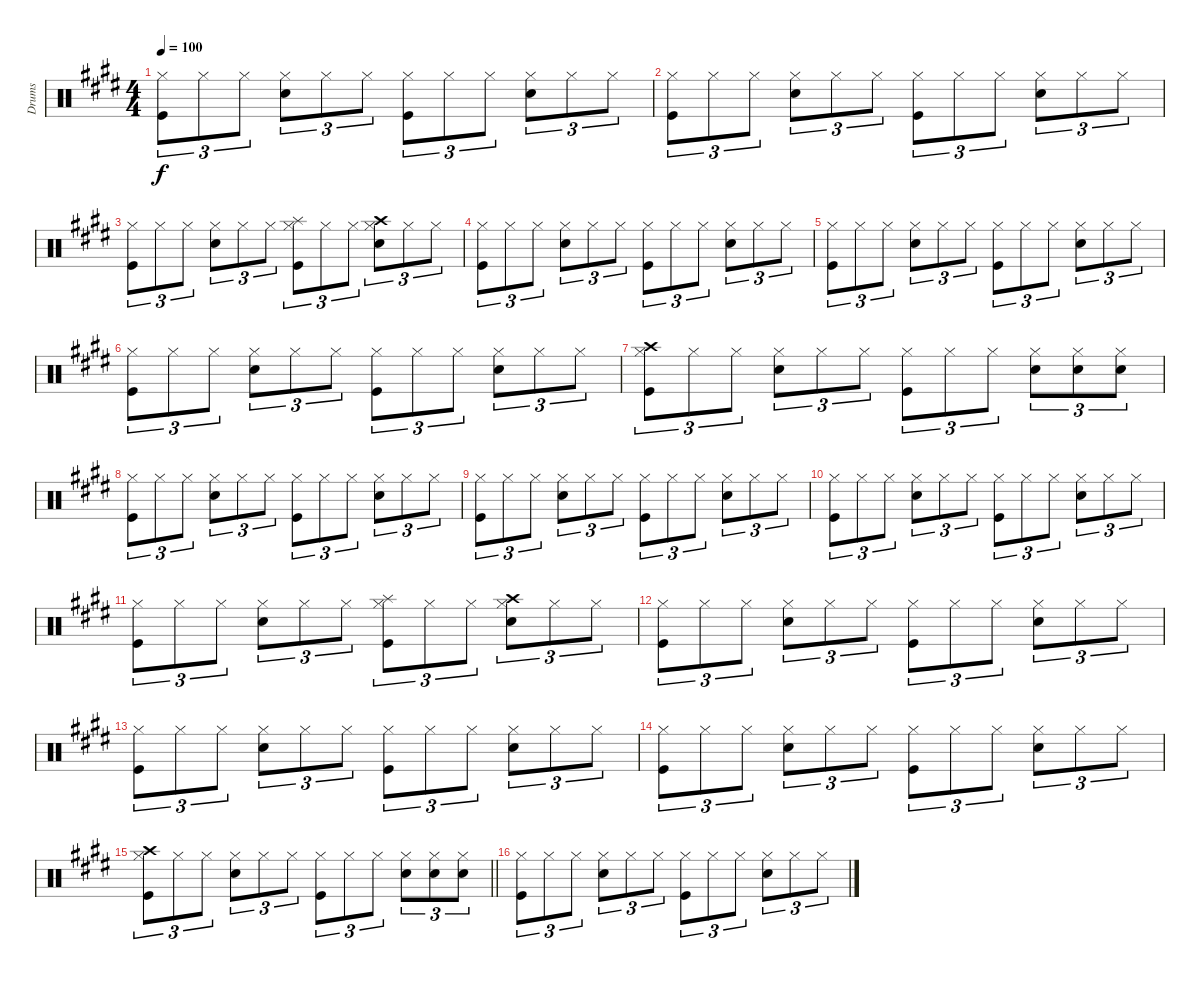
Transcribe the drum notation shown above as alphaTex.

\track ("Drums" "Drums") {instrument percussion}
\staff {score}
\articulation defaults
\ts (4 4)
\tempo 100
\clef neutral
\ks e
("Hi-Hat (closed)" "Kick (hit)").8{tu (3 2) dy f} "Hi-Hat (closed)".8{tu (3 2)} "Hi-Hat (closed)".8{tu (3 2)} ("Hi-Hat (closed)" "Snare (hit) 2").8{tu (3 2)} "Hi-Hat (closed)".8{tu (3 2)} "Hi-Hat (closed)".8{tu (3 2)} ("Hi-Hat (closed)" "Kick (hit)").8{tu (3 2)} "Hi-Hat (closed)".8{tu (3 2)} "Hi-Hat (closed)".8{tu (3 2)} ("Hi-Hat (closed)" "Snare (hit) 2").8{tu (3 2)} "Hi-Hat (closed)".8{tu (3 2)} "Hi-Hat (closed)".8{tu (3 2)} |
\ks c#minor
("Hi-Hat (closed)" "Kick (hit)").8{tu (3 2)} "Hi-Hat (closed)".8{tu (3 2)} "Hi-Hat (closed)".8{tu (3 2)} ("Hi-Hat (closed)" "Snare (hit) 2").8{tu (3 2)} "Hi-Hat (closed)".8{tu (3 2)} "Hi-Hat (closed)".8{tu (3 2)} ("Hi-Hat (closed)" "Kick (hit)").8{tu (3 2)} "Hi-Hat (closed)".8{tu (3 2)} "Hi-Hat (closed)".8{tu (3 2)} ("Hi-Hat (closed)" "Snare (hit) 2").8{tu (3 2)} "Hi-Hat (closed)".8{tu (3 2)} "Hi-Hat (closed)".8{tu (3 2)} |
\ks e
("Hi-Hat (closed)" "Kick (hit)").8{tu (3 2)} "Hi-Hat (closed)".8{tu (3 2)} "Hi-Hat (closed)".8{tu (3 2)} ("Hi-Hat (closed)" "Snare (hit) 2").8{tu (3 2)} "Hi-Hat (closed)".8{tu (3 2)} "Hi-Hat (closed)".8{tu (3 2)} ("Hi-Hat (closed)" "Splash (hit)" "Kick (hit)").8{tu (3 2)} "Hi-Hat (closed)".8{tu (3 2)} "Hi-Hat (closed)".8{tu (3 2)} ("Hi-Hat (closed)" "Crash high (hit)" "Snare (hit) 2").8{tu (3 2)} "Hi-Hat (closed)".8{tu (3 2)} "Hi-Hat (closed)".8{tu (3 2)} |
("Hi-Hat (closed)" "Kick (hit)").8{tu (3 2)} "Hi-Hat (closed)".8{tu (3 2)} "Hi-Hat (closed)".8{tu (3 2)} ("Hi-Hat (closed)" "Snare (hit) 2").8{tu (3 2)} "Hi-Hat (closed)".8{tu (3 2)} "Hi-Hat (closed)".8{tu (3 2)} ("Hi-Hat (closed)" "Kick (hit)").8{tu (3 2)} "Hi-Hat (closed)".8{tu (3 2)} "Hi-Hat (closed)".8{tu (3 2)} ("Hi-Hat (closed)" "Snare (hit) 2").8{tu (3 2)} "Hi-Hat (closed)".8{tu (3 2)} "Hi-Hat (closed)".8{tu (3 2)} |
\ks c#minor
("Hi-Hat (closed)" "Kick (hit)").8{tu (3 2)} "Hi-Hat (closed)".8{tu (3 2)} "Hi-Hat (closed)".8{tu (3 2)} ("Hi-Hat (closed)" "Snare (hit) 2").8{tu (3 2)} "Hi-Hat (closed)".8{tu (3 2)} "Hi-Hat (closed)".8{tu (3 2)} ("Hi-Hat (closed)" "Kick (hit)").8{tu (3 2)} "Hi-Hat (closed)".8{tu (3 2)} "Hi-Hat (closed)".8{tu (3 2)} ("Hi-Hat (closed)" "Snare (hit) 2").8{tu (3 2)} "Hi-Hat (closed)".8{tu (3 2)} "Hi-Hat (closed)".8{tu (3 2)} |
\ks e
("Hi-Hat (closed)" "Kick (hit)").8{tu (3 2)} "Hi-Hat (closed)".8{tu (3 2)} "Hi-Hat (closed)".8{tu (3 2)} ("Hi-Hat (closed)" "Snare (hit) 2").8{tu (3 2)} "Hi-Hat (closed)".8{tu (3 2)} "Hi-Hat (closed)".8{tu (3 2)} ("Hi-Hat (closed)" "Kick (hit)").8{tu (3 2)} "Hi-Hat (closed)".8{tu (3 2)} "Hi-Hat (closed)".8{tu (3 2)} ("Hi-Hat (closed)" "Snare (hit) 2").8{tu (3 2)} "Hi-Hat (closed)".8{tu (3 2)} "Hi-Hat (closed)".8{tu (3 2)} |
("Hi-Hat (closed)" "Crash high (hit)" "Kick (hit)").8{tu (3 2)} "Hi-Hat (closed)".8{tu (3 2)} "Hi-Hat (closed)".8{tu (3 2)} ("Hi-Hat (closed)" "Snare (hit) 2").8{tu (3 2)} "Hi-Hat (closed)".8{tu (3 2)} "Hi-Hat (closed)".8{tu (3 2)} ("Hi-Hat (closed)" "Kick (hit)").8{tu (3 2)} "Hi-Hat (closed)".8{tu (3 2)} "Hi-Hat (closed)".8{tu (3 2)} ("Hi-Hat (closed)" "Snare (hit) 2").8{tu (3 2)} ("Hi-Hat (closed)" "Snare (hit) 2").8{tu (3 2)} ("Hi-Hat (closed)" "Snare (hit) 2").8{tu (3 2)} |
("Hi-Hat (closed)" "Kick (hit)").8{tu (3 2)} "Hi-Hat (closed)".8{tu (3 2)} "Hi-Hat (closed)".8{tu (3 2)} ("Hi-Hat (closed)" "Snare (hit) 2").8{tu (3 2)} "Hi-Hat (closed)".8{tu (3 2)} "Hi-Hat (closed)".8{tu (3 2)} ("Hi-Hat (closed)" "Kick (hit)").8{tu (3 2)} "Hi-Hat (closed)".8{tu (3 2)} "Hi-Hat (closed)".8{tu (3 2)} ("Hi-Hat (closed)" "Snare (hit) 2").8{tu (3 2)} "Hi-Hat (closed)".8{tu (3 2)} "Hi-Hat (closed)".8{tu (3 2)} |
\ks c#minor
("Hi-Hat (closed)" "Kick (hit)").8{tu (3 2)} "Hi-Hat (closed)".8{tu (3 2)} "Hi-Hat (closed)".8{tu (3 2)} ("Hi-Hat (closed)" "Snare (hit) 2").8{tu (3 2)} "Hi-Hat (closed)".8{tu (3 2)} "Hi-Hat (closed)".8{tu (3 2)} ("Hi-Hat (closed)" "Kick (hit)").8{tu (3 2)} "Hi-Hat (closed)".8{tu (3 2)} "Hi-Hat (closed)".8{tu (3 2)} ("Hi-Hat (closed)" "Snare (hit) 2").8{tu (3 2)} "Hi-Hat (closed)".8{tu (3 2)} "Hi-Hat (closed)".8{tu (3 2)} |
("Hi-Hat (closed)" "Kick (hit)").8{tu (3 2)} "Hi-Hat (closed)".8{tu (3 2)} "Hi-Hat (closed)".8{tu (3 2)} ("Hi-Hat (closed)" "Snare (hit) 2").8{tu (3 2)} "Hi-Hat (closed)".8{tu (3 2)} "Hi-Hat (closed)".8{tu (3 2)} ("Hi-Hat (closed)" "Kick (hit)").8{tu (3 2)} "Hi-Hat (closed)".8{tu (3 2)} "Hi-Hat (closed)".8{tu (3 2)} ("Hi-Hat (closed)" "Snare (hit) 2").8{tu (3 2)} "Hi-Hat (closed)".8{tu (3 2)} "Hi-Hat (closed)".8{tu (3 2)} |
("Hi-Hat (closed)" "Kick (hit)").8{tu (3 2)} "Hi-Hat (closed)".8{tu (3 2)} "Hi-Hat (closed)".8{tu (3 2)} ("Hi-Hat (closed)" "Snare (hit) 2").8{tu (3 2)} "Hi-Hat (closed)".8{tu (3 2)} "Hi-Hat (closed)".8{tu (3 2)} ("Hi-Hat (closed)" "Splash (hit)" "Kick (hit)").8{tu (3 2)} "Hi-Hat (closed)".8{tu (3 2)} "Hi-Hat (closed)".8{tu (3 2)} ("Hi-Hat (closed)" "Crash high (hit)" "Snare (hit) 2").8{tu (3 2)} "Hi-Hat (closed)".8{tu (3 2)} "Hi-Hat (closed)".8{tu (3 2)} |
("Hi-Hat (closed)" "Kick (hit)").8{tu (3 2)} "Hi-Hat (closed)".8{tu (3 2)} "Hi-Hat (closed)".8{tu (3 2)} ("Hi-Hat (closed)" "Snare (hit) 2").8{tu (3 2)} "Hi-Hat (closed)".8{tu (3 2)} "Hi-Hat (closed)".8{tu (3 2)} ("Hi-Hat (closed)" "Kick (hit)").8{tu (3 2)} "Hi-Hat (closed)".8{tu (3 2)} "Hi-Hat (closed)".8{tu (3 2)} ("Hi-Hat (closed)" "Snare (hit) 2").8{tu (3 2)} "Hi-Hat (closed)".8{tu (3 2)} "Hi-Hat (closed)".8{tu (3 2)} |
\ks e
("Hi-Hat (closed)" "Kick (hit)").8{tu (3 2)} "Hi-Hat (closed)".8{tu (3 2)} "Hi-Hat (closed)".8{tu (3 2)} ("Hi-Hat (closed)" "Snare (hit) 2").8{tu (3 2)} "Hi-Hat (closed)".8{tu (3 2)} "Hi-Hat (closed)".8{tu (3 2)} ("Hi-Hat (closed)" "Kick (hit)").8{tu (3 2)} "Hi-Hat (closed)".8{tu (3 2)} "Hi-Hat (closed)".8{tu (3 2)} ("Hi-Hat (closed)" "Snare (hit) 2").8{tu (3 2)} "Hi-Hat (closed)".8{tu (3 2)} "Hi-Hat (closed)".8{tu (3 2)} |
\ks c#minor
("Hi-Hat (closed)" "Kick (hit)").8{tu (3 2)} "Hi-Hat (closed)".8{tu (3 2)} "Hi-Hat (closed)".8{tu (3 2)} ("Hi-Hat (closed)" "Snare (hit) 2").8{tu (3 2)} "Hi-Hat (closed)".8{tu (3 2)} "Hi-Hat (closed)".8{tu (3 2)} ("Hi-Hat (closed)" "Kick (hit)").8{tu (3 2)} "Hi-Hat (closed)".8{tu (3 2)} "Hi-Hat (closed)".8{tu (3 2)} ("Hi-Hat (closed)" "Snare (hit) 2").8{tu (3 2)} "Hi-Hat (closed)".8{tu (3 2)} "Hi-Hat (closed)".8{tu (3 2)} |
\barLineRight lightlight
("Hi-Hat (closed)" "Crash high (hit)" "Kick (hit)").8{tu (3 2)} "Hi-Hat (closed)".8{tu (3 2)} "Hi-Hat (closed)".8{tu (3 2)} ("Hi-Hat (closed)" "Snare (hit) 2").8{tu (3 2)} "Hi-Hat (closed)".8{tu (3 2)} "Hi-Hat (closed)".8{tu (3 2)} ("Hi-Hat (closed)" "Kick (hit)").8{tu (3 2)} "Hi-Hat (closed)".8{tu (3 2)} "Hi-Hat (closed)".8{tu (3 2)} ("Hi-Hat (closed)" "Snare (hit) 2").8{tu (3 2)} ("Hi-Hat (closed)" "Snare (hit) 2").8{tu (3 2)} ("Hi-Hat (closed)" "Snare (hit) 2").8{tu (3 2)} |
("Hi-Hat (closed)" "Kick (hit)").8{tu (3 2)} "Hi-Hat (closed)".8{tu (3 2)} "Hi-Hat (closed)".8{tu (3 2)} ("Hi-Hat (closed)" "Snare (hit) 2").8{tu (3 2)} "Hi-Hat (closed)".8{tu (3 2)} "Hi-Hat (closed)".8{tu (3 2)} ("Hi-Hat (closed)" "Kick (hit)").8{tu (3 2)} "Hi-Hat (closed)".8{tu (3 2)} "Hi-Hat (closed)".8{tu (3 2)} ("Hi-Hat (closed)" "Snare (hit) 2").8{tu (3 2)} "Hi-Hat (closed)".8{tu (3 2)} "Hi-Hat (closed)".8{tu (3 2)}
